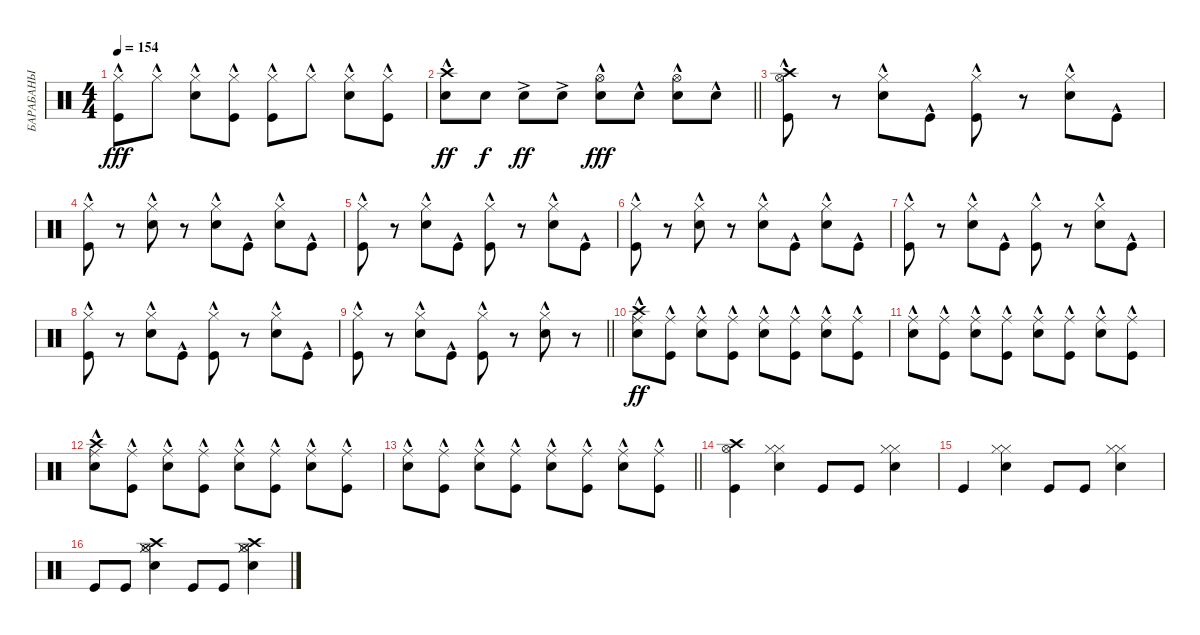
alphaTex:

\track ("БАРАБАНЫ" "БАРАБАНЫ") {instrument percussion}
\staff {score}
\articulation defaults
\ts (4 4)
\tempo 154
\clef neutral
\ks c
("Hi-Hat (closed)"{hac} "Kick (hit)"{hac}).8{dy fff} "Hi-Hat (closed)"{hac}.8 ("Hi-Hat (closed)"{hac} "Snare (hit) 2"{hac}).8 ("Hi-Hat (closed)"{hac} "Kick (hit)"{hac}).8 ("Hi-Hat (closed)"{hac} "Kick (hit)"{hac}).8 "Hi-Hat (closed)"{hac}.8 ("Hi-Hat (closed)"{hac} "Snare (hit) 2"{hac}).8 ("Hi-Hat (closed)"{hac} "Kick (hit)"{hac}).8 |
\barLineRight lightlight
("Crash high (hit)"{hac} "Snare (hit) 2").8{dy ff} "Snare (hit) 2".8{dy f} "Snare (hit) 2"{ac}.8{dy ff} "Snare (hit) 2"{ac}.8 ("Hi-Hat (open)"{hac} "Snare (hit) 2"{hac}).8{dy fff} "Snare (hit) 2"{hac}.8 ("Hi-Hat (open)"{hac} "Snare (hit) 2"{hac}).8 "Snare (hit) 2"{hac}.8 |
("Hi-Hat (open)"{hac} "Crash high (hit)"{hac} "Kick (hit)"{hac}).8 r.8 ("Hi-Hat (closed)"{hac} "Snare (hit) 2"{hac}).8 "Kick (hit)"{hac}.8 ("Hi-Hat (closed)"{hac} "Kick (hit)"{hac}).8 r.8 ("Hi-Hat (closed)"{hac} "Snare (hit) 2"{hac}).8 "Kick (hit)"{hac}.8 |
("Hi-Hat (closed)"{hac} "Kick (hit)"{hac}).8 r.8 ("Hi-Hat (closed)"{hac} "Snare (hit) 2"{hac}).8 r.8 ("Hi-Hat (closed)"{hac} "Snare (hit) 2"{hac}).8 "Kick (hit)"{hac}.8 ("Hi-Hat (closed)"{hac} "Snare (hit) 2"{hac}).8 "Kick (hit)"{hac}.8 |
("Hi-Hat (closed)"{hac} "Kick (hit)"{hac}).8 r.8 ("Hi-Hat (closed)"{hac} "Snare (hit) 2"{hac}).8 "Kick (hit)"{hac}.8 ("Hi-Hat (closed)"{hac} "Kick (hit)"{hac}).8 r.8 ("Hi-Hat (closed)"{hac} "Snare (hit) 2"{hac}).8 "Kick (hit)"{hac}.8 |
("Hi-Hat (closed)"{hac} "Kick (hit)"{hac}).8 r.8 ("Hi-Hat (closed)"{hac} "Snare (hit) 2"{hac}).8 r.8 ("Hi-Hat (closed)"{hac} "Snare (hit) 2"{hac}).8 "Kick (hit)"{hac}.8 ("Hi-Hat (closed)"{hac} "Snare (hit) 2"{hac}).8 "Kick (hit)"{hac}.8 |
("Hi-Hat (closed)"{hac} "Kick (hit)"{hac}).8 r.8 ("Hi-Hat (closed)"{hac} "Snare (hit) 2"{hac}).8 "Kick (hit)"{hac}.8 ("Hi-Hat (closed)"{hac} "Kick (hit)"{hac}).8 r.8 ("Hi-Hat (closed)"{hac} "Snare (hit) 2"{hac}).8 "Kick (hit)"{hac}.8 |
("Hi-Hat (closed)"{hac} "Kick (hit)"{hac}).8 r.8 ("Hi-Hat (closed)"{hac} "Snare (hit) 2"{hac}).8 "Kick (hit)"{hac}.8 ("Hi-Hat (closed)"{hac} "Kick (hit)"{hac}).8 r.8 ("Hi-Hat (closed)"{hac} "Snare (hit) 2"{hac}).8 "Kick (hit)"{hac}.8 |
\barLineRight lightlight
("Hi-Hat (closed)"{hac} "Kick (hit)"{hac}).8 r.8 ("Hi-Hat (closed)"{hac} "Snare (hit) 2"{hac}).8 "Kick (hit)"{hac}.8 ("Hi-Hat (closed)"{hac} "Kick (hit)"{hac}).8 r.8 ("Hi-Hat (closed)"{hac} "Snare (hit) 2"{hac}).8 r.8 |
("Ride (middle)"{hac} "Crash high (hit)"{hac} "Snare (hit) 2"{hac}).8{dy ff} ("Ride (middle)"{hac} "Kick (hit)"{hac}).8 ("Ride (middle)"{hac} "Snare (hit) 2"{hac}).8 ("Ride (middle)"{hac} "Kick (hit)"{hac}).8 ("Ride (middle)"{hac} "Snare (hit) 2"{hac}).8 ("Ride (middle)"{hac} "Kick (hit)"{hac}).8 ("Ride (middle)"{hac} "Snare (hit) 2"{hac}).8 ("Ride (middle)"{hac} "Kick (hit)"{hac}).8 |
("Ride (middle)"{hac} "Snare (hit) 2"{hac}).8 ("Ride (middle)"{hac} "Kick (hit)"{hac}).8 ("Ride (middle)"{hac} "Snare (hit) 2"{hac}).8 ("Ride (middle)"{hac} "Kick (hit)"{hac}).8 ("Ride (middle)"{hac} "Snare (hit) 2"{hac}).8 ("Ride (middle)"{hac} "Kick (hit)"{hac}).8 ("Ride (middle)"{hac} "Snare (hit) 2"{hac}).8 ("Ride (middle)"{hac} "Kick (hit)"{hac}).8 |
("Ride (middle)"{hac} "Crash high (hit)"{hac} "Snare (hit) 2"{hac}).8 ("Ride (middle)"{hac} "Kick (hit)"{hac}).8 ("Ride (middle)"{hac} "Snare (hit) 2"{hac}).8 ("Ride (middle)"{hac} "Kick (hit)"{hac}).8 ("Ride (middle)"{hac} "Snare (hit) 2"{hac}).8 ("Ride (middle)"{hac} "Kick (hit)"{hac}).8 ("Ride (middle)"{hac} "Snare (hit) 2"{hac}).8 ("Ride (middle)"{hac} "Kick (hit)"{hac}).8 |
\barLineRight lightlight
("Ride (middle)"{hac} "Snare (hit) 2"{hac}).8 ("Ride (middle)"{hac} "Kick (hit)"{hac}).8 ("Ride (middle)"{hac} "Snare (hit) 2"{hac}).8 ("Ride (middle)"{hac} "Kick (hit)"{hac}).8 ("Ride (middle)"{hac} "Snare (hit) 2"{hac}).8 ("Ride (middle)"{hac} "Kick (hit)"{hac}).8 ("Ride (middle)"{hac} "Snare (hit) 2"{hac}).8 ("Ride (middle)"{hac} "Kick (hit)"{hac}).8 |
("Kick (hit)" "Hi-Hat (open)" "Crash high (hit)").4 ("Snare (hit) 2" "Hi-Hat (closed)" "Hi-Hat (closed)").4 "Kick (hit)".8 "Kick (hit)".8 ("Snare (hit) 2" "Hi-Hat (closed)" "Hi-Hat (closed)").4 |
"Kick (hit)".4 ("Snare (hit) 2" "Hi-Hat (closed)" "Hi-Hat (closed)").4 "Kick (hit)".8 "Kick (hit)".8 ("Snare (hit) 2" "Hi-Hat (closed)" "Hi-Hat (closed)").4 |
"Kick (hit)".8 "Kick (hit)".8 ("Snare (hit) 2" "Hi-Hat (closed)" "Hi-Hat (closed)" "Hi-Hat (open)" "Crash high (hit)").4 "Kick (hit)".8 "Kick (hit)".8 ("Snare (hit) 2" "Hi-Hat (closed)" "Hi-Hat (closed)" "Hi-Hat (open)" "Crash high (hit)").4
